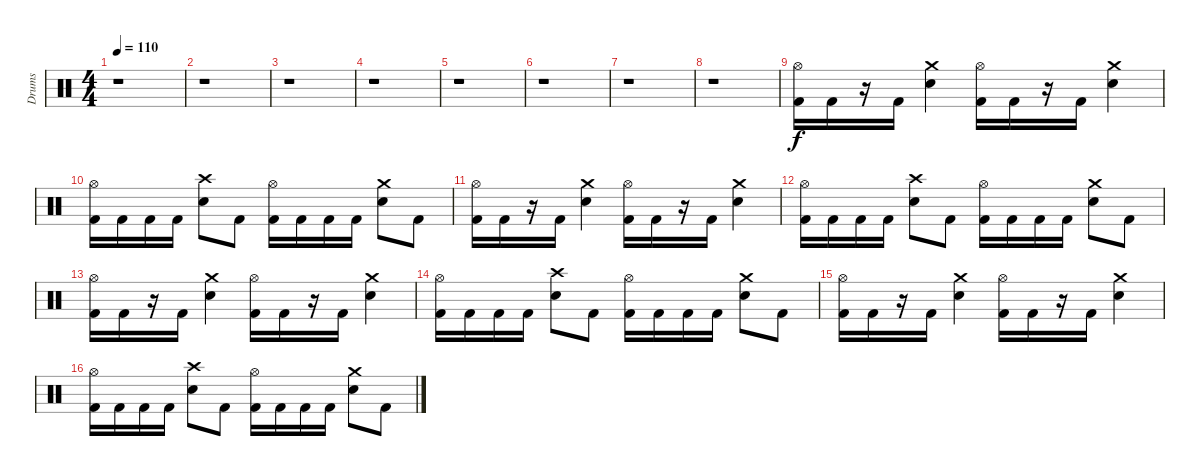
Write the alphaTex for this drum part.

\track ("Drums" "Drums") {instrument percussion}
\staff {score}
\articulation defaults
\ts (4 4)
\tempo 110
\clef neutral
\ks c
r.1{dy f} |
r.1 |
r.1 |
r.1 |
r.1 |
r.1 |
r.1 |
r.1 |
("Hi-Hat (open)" "Kick (hit) 2").16 "Kick (hit) 2".16 r.16 "Kick (hit) 2".16 ("Crash medium (hit)" "Electric Snare (hit)").4 ("Hi-Hat (open)" "Kick (hit) 2").16 "Kick (hit) 2".16 r.16 "Kick (hit) 2".16 ("Crash medium (hit)" "Electric Snare (hit)").4 |
("Hi-Hat (open)" "Kick (hit) 2").16 "Kick (hit) 2".16 "Kick (hit) 2".16 "Kick (hit) 2".16 ("Crash high (hit)" "Electric Snare (hit)").8 "Kick (hit) 2".8 ("Hi-Hat (open)" "Kick (hit) 2").16 "Kick (hit) 2".16 "Kick (hit) 2".16 "Kick (hit) 2".16 ("Crash medium (hit)" "Electric Snare (hit)").8 "Kick (hit) 2".8 |
("Hi-Hat (open)" "Kick (hit) 2").16 "Kick (hit) 2".16 r.16 "Kick (hit) 2".16 ("Crash medium (hit)" "Electric Snare (hit)").4 ("Hi-Hat (open)" "Kick (hit) 2").16 "Kick (hit) 2".16 r.16 "Kick (hit) 2".16 ("Crash medium (hit)" "Electric Snare (hit)").4 |
("Hi-Hat (open)" "Kick (hit) 2").16 "Kick (hit) 2".16 "Kick (hit) 2".16 "Kick (hit) 2".16 ("Crash high (hit)" "Electric Snare (hit)").8 "Kick (hit) 2".8 ("Hi-Hat (open)" "Kick (hit) 2").16 "Kick (hit) 2".16 "Kick (hit) 2".16 "Kick (hit) 2".16 ("Crash medium (hit)" "Electric Snare (hit)").8 "Kick (hit) 2".8 |
("Hi-Hat (open)" "Kick (hit) 2").16 "Kick (hit) 2".16 r.16 "Kick (hit) 2".16 ("Crash medium (hit)" "Electric Snare (hit)").4 ("Hi-Hat (open)" "Kick (hit) 2").16 "Kick (hit) 2".16 r.16 "Kick (hit) 2".16 ("Crash medium (hit)" "Electric Snare (hit)").4 |
("Hi-Hat (open)" "Kick (hit) 2").16 "Kick (hit) 2".16 "Kick (hit) 2".16 "Kick (hit) 2".16 ("Crash high (hit)" "Electric Snare (hit)").8 "Kick (hit) 2".8 ("Hi-Hat (open)" "Kick (hit) 2").16 "Kick (hit) 2".16 "Kick (hit) 2".16 "Kick (hit) 2".16 ("Crash medium (hit)" "Electric Snare (hit)").8 "Kick (hit) 2".8 |
("Hi-Hat (open)" "Kick (hit) 2").16 "Kick (hit) 2".16 r.16 "Kick (hit) 2".16 ("Crash medium (hit)" "Electric Snare (hit)").4 ("Hi-Hat (open)" "Kick (hit) 2").16 "Kick (hit) 2".16 r.16 "Kick (hit) 2".16 ("Crash medium (hit)" "Electric Snare (hit)").4 |
("Hi-Hat (open)" "Kick (hit) 2").16 "Kick (hit) 2".16 "Kick (hit) 2".16 "Kick (hit) 2".16 ("Crash high (hit)" "Electric Snare (hit)").8 "Kick (hit) 2".8 ("Hi-Hat (open)" "Kick (hit) 2").16 "Kick (hit) 2".16 "Kick (hit) 2".16 "Kick (hit) 2".16 ("Crash medium (hit)" "Electric Snare (hit)").8 "Kick (hit) 2".8
